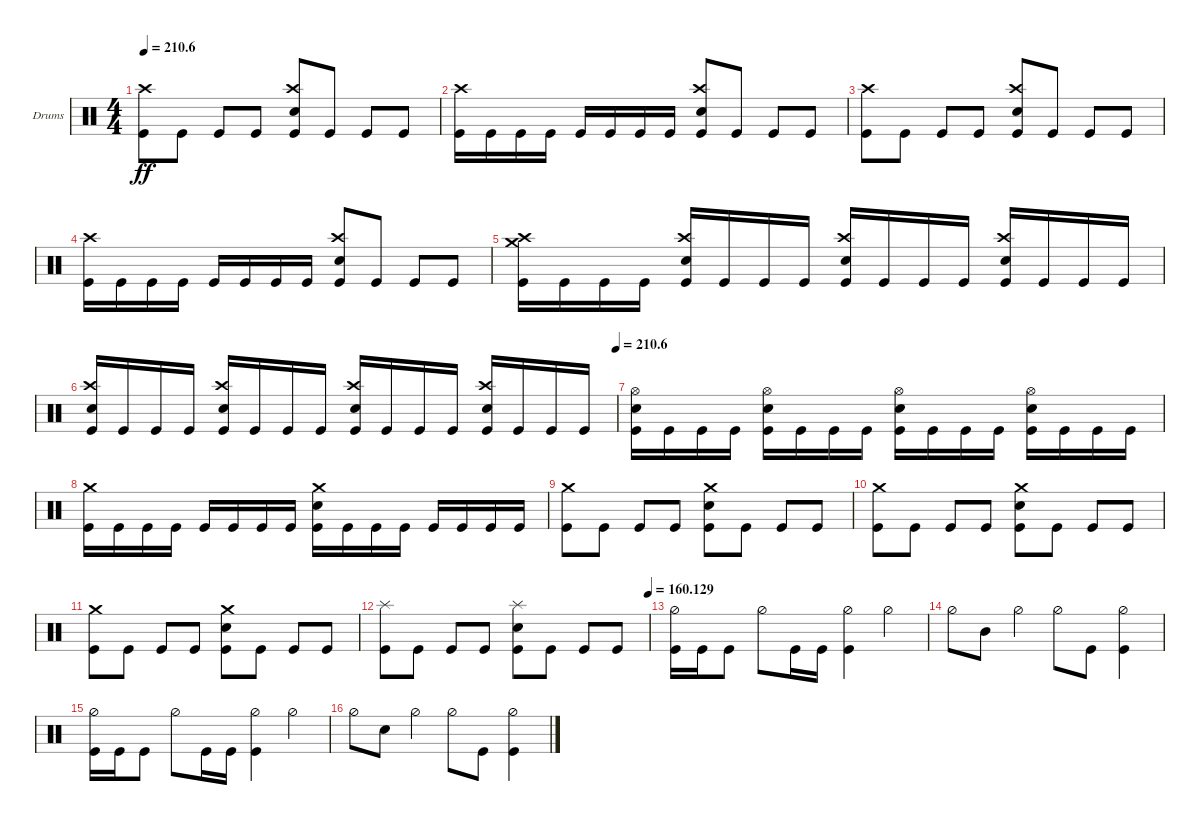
\bracketExtendMode groupsimilarinstruments
\firstSystemTrackNameOrientation horizontal
\otherSystemsTrackNameOrientation horizontal
\track ("Drumkit" "Drums") {instrument percussion}
\staff {score}
\articulation defaults
\ts (4 4)
\tempo
210.6
\accidentals auto
\clef neutral
\ottava regular
\simile none
\ks c
("Kick (hit)" "Crash high (hit)").8{dy ff} "Kick (hit)".8 "Kick (hit)".8 "Kick (hit)".8 ("Kick (hit)" "Crash high (hit)" "Snare (hit) 2").8 "Kick (hit)".8 "Kick (hit)".8 "Kick (hit)".8 |
("Kick (hit)" "Crash high (hit)").16 "Kick (hit)".16 "Kick (hit)".16 "Kick (hit)".16 "Kick (hit)".16 "Kick (hit)".16 "Kick (hit)".16 "Kick (hit)".16 ("Kick (hit)" "Crash high (hit)" "Snare (hit) 2").8 "Kick (hit)".8 "Kick (hit)".8 "Kick (hit)".8 |
("Kick (hit)" "Crash high (hit)").8 "Kick (hit)".8 "Kick (hit)".8 "Kick (hit)".8 ("Kick (hit)" "Crash high (hit)" "Snare (hit) 2").8 "Kick (hit)".8 "Kick (hit)".8 "Kick (hit)".8 |
("Kick (hit)" "Crash high (hit)").16 "Kick (hit)".16 "Kick (hit)".16 "Kick (hit)".16 "Kick (hit)".16 "Kick (hit)".16 "Kick (hit)".16 "Kick (hit)".16 ("Kick (hit)" "Crash high (hit)" "Snare (hit) 2").8 "Kick (hit)".8 "Kick (hit)".8 "Kick (hit)".8 |
("Kick (hit)" "Crash high (hit)" "Crash medium (hit)").16 "Kick (hit)".16 "Kick (hit)".16 "Kick (hit)".16 ("Kick (hit)" "Crash high (hit)" "Snare (hit) 2").16 "Kick (hit)".16 "Kick (hit)".16 "Kick (hit)".16 ("Kick (hit)" "Snare (hit) 2" "Crash high (hit)").16 "Kick (hit)".16 "Kick (hit)".16 "Kick (hit)".16 ("Kick (hit)" "Crash high (hit)" "Snare (hit) 2").16 "Kick (hit)".16 "Kick (hit)".16 "Kick (hit)".16 |
\tempo (210.6 1)
("Kick (hit)" "Crash high (hit)" "Snare (hit) 2").16 "Kick (hit)".16 "Kick (hit)".16 "Kick (hit)".16 ("Kick (hit)" "Crash high (hit)" "Snare (hit) 2").16 "Kick (hit)".16 "Kick (hit)".16 "Kick (hit)".16 ("Kick (hit)" "Snare (hit) 2" "Crash high (hit)").16 "Kick (hit)".16 "Kick (hit)".16 "Kick (hit)".16 ("Kick (hit)" "Crash high (hit)" "Snare (hit) 2").16 "Kick (hit)".16 "Kick (hit)".16 "Kick (hit)".16 |
("Kick (hit)" "Snare (hit) 2" "Hi-Hat (open)").16 "Kick (hit)".16 "Kick (hit)".16 "Kick (hit)".16 ("Kick (hit)" "Snare (hit) 2" "Hi-Hat (open)").16 "Kick (hit)".16 "Kick (hit)".16 "Kick (hit)".16 ("Kick (hit)" "Snare (hit) 2" "Hi-Hat (open)").16 "Kick (hit)".16 "Kick (hit)".16 "Kick (hit)".16 ("Kick (hit)" "Snare (hit) 2" "Hi-Hat (open)").16 "Kick (hit)".16 "Kick (hit)".16 "Kick (hit)".16 |
("Kick (hit)" "Crash medium (hit)").16 "Kick (hit)".16 "Kick (hit)".16 "Kick (hit)".16 "Kick (hit)".16 "Kick (hit)".16 "Kick (hit)".16 "Kick (hit)".16 ("Kick (hit)" "Crash medium (hit)" "Snare (hit) 2").16 "Kick (hit)".16 "Kick (hit)".16 "Kick (hit)".16 "Kick (hit)".16 "Kick (hit)".16 "Kick (hit)".16 "Kick (hit)".16 |
("Kick (hit)" "Crash medium (hit)").8 "Kick (hit)".8 "Kick (hit)".8 "Kick (hit)".8 ("Kick (hit)" "Snare (hit) 2" "Crash medium (hit)").8 "Kick (hit)".8 "Kick (hit)".8 "Kick (hit)".8 |
("Kick (hit)" "Crash medium (hit)").8 "Kick (hit)".8 "Kick (hit)".8 "Kick (hit)".8 ("Kick (hit)" "Crash medium (hit)" "Snare (hit) 2").8 "Kick (hit)".8 "Kick (hit)".8 "Kick (hit)".8 |
("Kick (hit)" "Crash medium (hit)").8 "Kick (hit)".8 "Kick (hit)".8 "Kick (hit)".8 ("Kick (hit)" "Snare (hit) 2" "Crash medium (hit)").8 "Kick (hit)".8 "Kick (hit)".8 "Kick (hit)".8 |
\tempo (160.129 1)
("Kick (hit)" "Splash (hit)").8 "Kick (hit)".8 "Kick (hit)".8 "Kick (hit)".8 ("Kick (hit)" "Splash (hit)" "Snare (hit) 2").8 "Kick (hit)".8 "Kick (hit)".8 "Kick (hit)".8 |
("Kick (hit)" "Hi-Hat (half)").16 "Kick (hit)".16 "Kick (hit)".8 "Hi-Hat (half)".8 "Kick (hit)".16 "Kick (hit)".16 ("Hi-Hat (half)" "Kick (hit)").4 "Hi-Hat (half)".4 |
"Hi-Hat (half)".8 "Mid Tom (hit)".8 "Hi-Hat (half)".4 "Hi-Hat (half)".8 "Kick (hit)".8 ("Hi-Hat (half)" "Kick (hit)").4 |
("Kick (hit)" "Hi-Hat (half)").16 "Kick (hit)".16 "Kick (hit)".8 "Hi-Hat (half)".8 "Kick (hit)".16 "Kick (hit)".16 ("Hi-Hat (half)" "Kick (hit)").4 "Hi-Hat (half)".4 |
"Hi-Hat (half)".8 "Snare (hit) 2".8 "Hi-Hat (half)".4 "Hi-Hat (half)".8 "Kick (hit)".8 ("Hi-Hat (half)" "Kick (hit)").4
